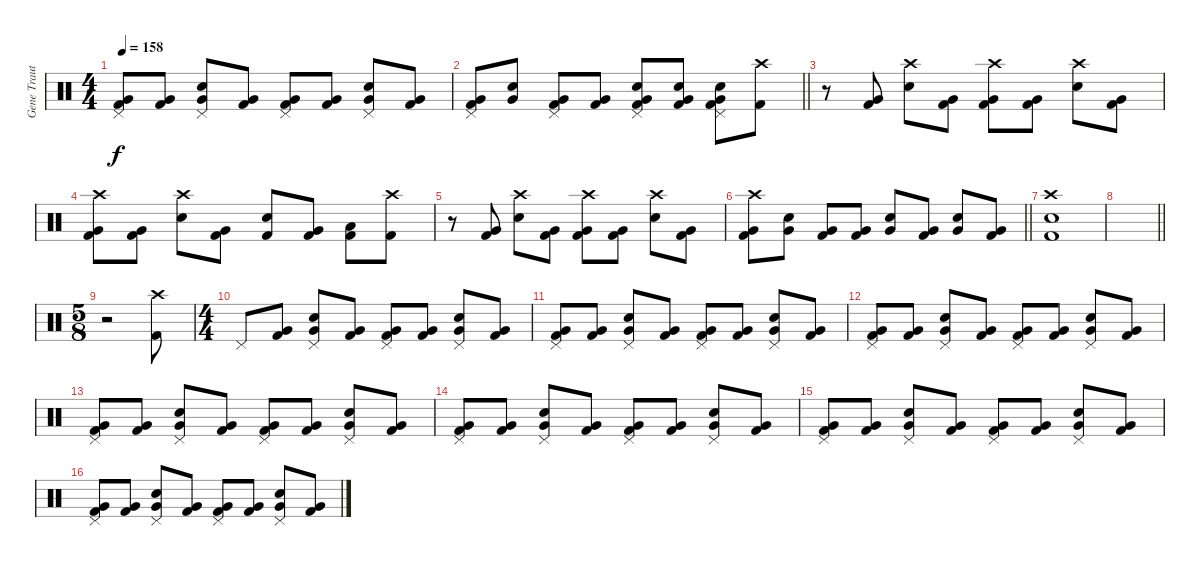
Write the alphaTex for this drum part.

\track ("Gene Trautmann" "Gene Traut") {instrument percussion}
\staff {score}
\articulation defaults
\ts (4 4)
\tempo 158
\clef neutral
\ks c
("Pedal Hi-Hat (hit)" "Very Low Tom (hit)" "Kick (hit) 2").8{dy f} ("Very Low Tom (hit)" "Kick (hit) 2").8 ("Pedal Hi-Hat (hit)" "Electric Snare (hit)" "Very Low Tom (hit)").8 ("Very Low Tom (hit)" "Kick (hit) 2").8 ("Pedal Hi-Hat (hit)" "Very Low Tom (hit)" "Kick (hit) 2").8 ("Very Low Tom (hit)" "Kick (hit) 2").8 ("Pedal Hi-Hat (hit)" "Electric Snare (hit)" "Very Low Tom (hit)").8 ("Very Low Tom (hit)" "Kick (hit) 2").8 |
\barLineRight lightlight
("Pedal Hi-Hat (hit)" "Very Low Tom (hit)" "Kick (hit) 2").8 ("Electric Snare (hit)" "Very Low Tom (hit)").8 ("Pedal Hi-Hat (hit)" "Very Low Tom (hit)" "Kick (hit) 2").8 ("Very Low Tom (hit)" "Kick (hit) 2").8 ("Pedal Hi-Hat (hit)" "Electric Snare (hit)" "Very Low Tom (hit)" "Kick (hit) 2").8 ("Electric Snare (hit)" "Very Low Tom (hit)" "Kick (hit) 2").8 ("Pedal Hi-Hat (hit)" "Electric Snare (hit)" "Very Low Tom (hit)" "Kick (hit) 2").8 ("Crash high (hit)" "Kick (hit) 2").8 |
r.8 ("Very Low Tom (hit)" "Kick (hit) 2").8 ("Crash high (hit)" "Electric Snare (hit)").8 ("Very Low Tom (hit)" "Kick (hit) 2").8 ("Crash high (hit)" "Very Low Tom (hit)" "Kick (hit) 2").8 ("Very Low Tom (hit)" "Kick (hit) 2").8 ("Crash high (hit)" "Electric Snare (hit)").8 ("Very Low Tom (hit)" "Kick (hit) 2").8 |
("Crash high (hit)" "Very Low Tom (hit)" "Kick (hit) 2").8 ("Very Low Tom (hit)" "Kick (hit) 2").8 ("Crash high (hit)" "Electric Snare (hit)").8 ("Very Low Tom (hit)" "Kick (hit) 2").8 ("Electric Snare (hit)" "Kick (hit) 2").8 ("Very Low Tom (hit)" "Kick (hit) 2").8 ("Low Floor Tom (hit)" "Kick (hit) 2").8 ("Crash high (hit)" "Kick (hit) 2").8 |
r.8 ("Very Low Tom (hit)" "Kick (hit) 2").8 ("Crash high (hit)" "Electric Snare (hit)").8 ("Very Low Tom (hit)" "Kick (hit) 2").8 ("Crash high (hit)" "Very Low Tom (hit)" "Kick (hit) 2").8 ("Very Low Tom (hit)" "Kick (hit) 2").8 ("Crash high (hit)" "Electric Snare (hit)").8 ("Very Low Tom (hit)" "Kick (hit) 2").8 |
\barLineRight lightlight
("Crash high (hit)" "Very Low Tom (hit)" "Kick (hit) 2").8 ("Electric Snare (hit)" "Very Low Tom (hit)").8 ("Very Low Tom (hit)" "Kick (hit) 2").8 ("Very Low Tom (hit)" "Kick (hit) 2").8 ("Electric Snare (hit)" "Very Low Tom (hit)").8 ("Very Low Tom (hit)" "Kick (hit) 2").8 ("Electric Snare (hit)" "Very Low Tom (hit)").8 ("Very Low Tom (hit)" "Kick (hit) 2").8 |
("Crash high (hit)" "Electric Snare (hit)" "Kick (hit) 2").1{volume 0} |
\barLineRight lightlight
|
\ts (5 8)
\section ("" "")
r.2{volume 15} ("Crash high (hit)" "Kick (hit) 2").8 |
\ts (4 4)
"Pedal Hi-Hat (hit)".8 ("Very Low Tom (hit)" "Kick (hit) 2").8 ("Pedal Hi-Hat (hit)" "Electric Snare (hit)" "Very Low Tom (hit)").8 ("Very Low Tom (hit)" "Kick (hit) 2").8 ("Pedal Hi-Hat (hit)" "Very Low Tom (hit)" "Kick (hit) 2").8 ("Very Low Tom (hit)" "Kick (hit) 2").8 ("Pedal Hi-Hat (hit)" "Electric Snare (hit)" "Very Low Tom (hit)").8 ("Very Low Tom (hit)" "Kick (hit) 2").8 |
("Pedal Hi-Hat (hit)" "Very Low Tom (hit)" "Kick (hit) 2").8 ("Very Low Tom (hit)" "Kick (hit) 2").8 ("Pedal Hi-Hat (hit)" "Electric Snare (hit)" "Very Low Tom (hit)").8 ("Very Low Tom (hit)" "Kick (hit) 2").8 ("Pedal Hi-Hat (hit)" "Very Low Tom (hit)" "Kick (hit) 2").8 ("Very Low Tom (hit)" "Kick (hit) 2").8 ("Pedal Hi-Hat (hit)" "Electric Snare (hit)" "Very Low Tom (hit)").8 ("Very Low Tom (hit)" "Kick (hit) 2").8 |
("Pedal Hi-Hat (hit)" "Very Low Tom (hit)" "Kick (hit) 2").8 ("Very Low Tom (hit)" "Kick (hit) 2").8 ("Pedal Hi-Hat (hit)" "Electric Snare (hit)" "Very Low Tom (hit)").8 ("Very Low Tom (hit)" "Kick (hit) 2").8 ("Pedal Hi-Hat (hit)" "Very Low Tom (hit)" "Kick (hit) 2").8 ("Very Low Tom (hit)" "Kick (hit) 2").8 ("Pedal Hi-Hat (hit)" "Electric Snare (hit)" "Very Low Tom (hit)").8 ("Very Low Tom (hit)" "Kick (hit) 2").8 |
("Pedal Hi-Hat (hit)" "Very Low Tom (hit)" "Kick (hit) 2").8 ("Very Low Tom (hit)" "Kick (hit) 2").8 ("Pedal Hi-Hat (hit)" "Electric Snare (hit)" "Very Low Tom (hit)").8 ("Very Low Tom (hit)" "Kick (hit) 2").8 ("Pedal Hi-Hat (hit)" "Very Low Tom (hit)" "Kick (hit) 2").8 ("Very Low Tom (hit)" "Kick (hit) 2").8 ("Pedal Hi-Hat (hit)" "Electric Snare (hit)" "Very Low Tom (hit)").8 ("Very Low Tom (hit)" "Kick (hit) 2").8 |
("Pedal Hi-Hat (hit)" "Very Low Tom (hit)" "Kick (hit) 2").8 ("Very Low Tom (hit)" "Kick (hit) 2").8 ("Pedal Hi-Hat (hit)" "Electric Snare (hit)" "Very Low Tom (hit)").8 ("Very Low Tom (hit)" "Kick (hit) 2").8 ("Pedal Hi-Hat (hit)" "Very Low Tom (hit)" "Kick (hit) 2").8 ("Very Low Tom (hit)" "Kick (hit) 2").8 ("Pedal Hi-Hat (hit)" "Electric Snare (hit)" "Very Low Tom (hit)").8 ("Very Low Tom (hit)" "Kick (hit) 2").8 |
("Pedal Hi-Hat (hit)" "Very Low Tom (hit)" "Kick (hit) 2").8 ("Very Low Tom (hit)" "Kick (hit) 2").8 ("Pedal Hi-Hat (hit)" "Electric Snare (hit)" "Very Low Tom (hit)").8 ("Very Low Tom (hit)" "Kick (hit) 2").8 ("Pedal Hi-Hat (hit)" "Very Low Tom (hit)" "Kick (hit) 2").8 ("Very Low Tom (hit)" "Kick (hit) 2").8 ("Pedal Hi-Hat (hit)" "Electric Snare (hit)" "Very Low Tom (hit)").8 ("Very Low Tom (hit)" "Kick (hit) 2").8 |
("Pedal Hi-Hat (hit)" "Very Low Tom (hit)" "Kick (hit) 2").8 ("Very Low Tom (hit)" "Kick (hit) 2").8 ("Pedal Hi-Hat (hit)" "Electric Snare (hit)" "Very Low Tom (hit)").8 ("Very Low Tom (hit)" "Kick (hit) 2").8 ("Pedal Hi-Hat (hit)" "Very Low Tom (hit)" "Kick (hit) 2").8 ("Very Low Tom (hit)" "Kick (hit) 2").8 ("Pedal Hi-Hat (hit)" "Electric Snare (hit)" "Very Low Tom (hit)").8 ("Very Low Tom (hit)" "Kick (hit) 2").8
